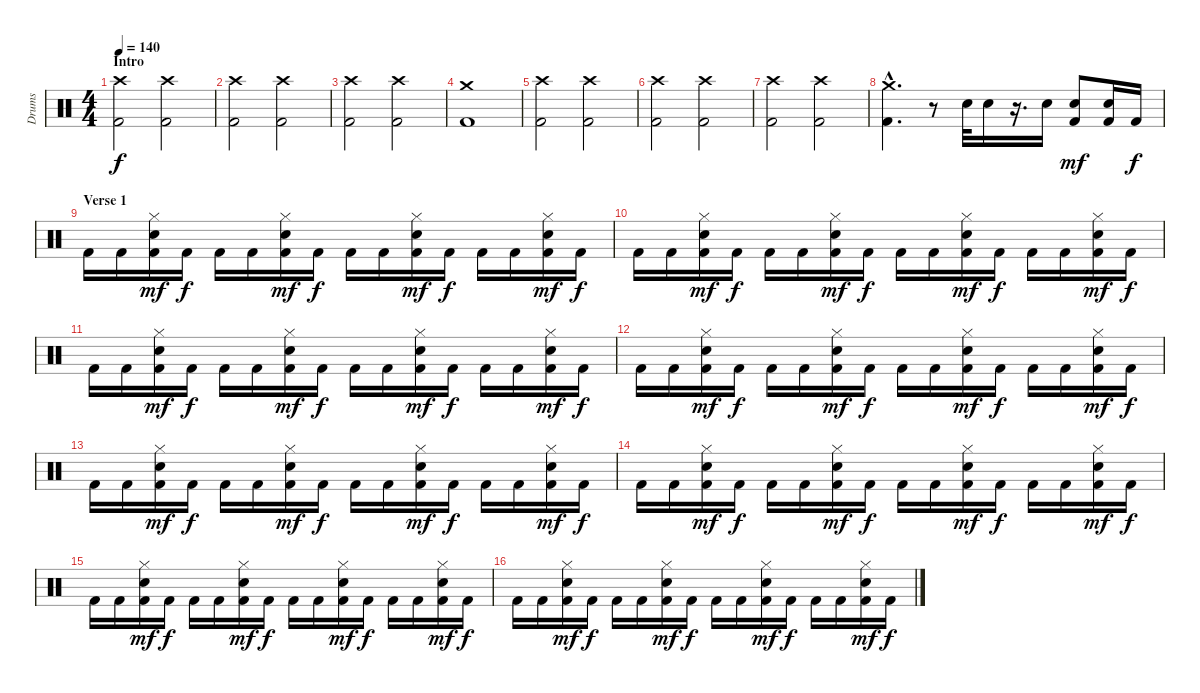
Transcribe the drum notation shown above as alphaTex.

\track ("Drums" "Drums") {instrument percussion}
\staff {score}
\articulation defaults
\ts (4 4)
\section ("" "Intro")
\tempo 140
\clef neutral
\ks c
("Kick (hit) 2" "Crash high (hit)").2{dy f} ("Kick (hit) 2" "Crash high (hit)").2 |
("Kick (hit) 2" "Crash high (hit)").2 ("Kick (hit) 2" "Crash high (hit)").2 |
("Kick (hit) 2" "Crash high (hit)").2 ("Kick (hit) 2" "Crash high (hit)").2 |
("Kick (hit) 2" "Crash medium (hit)").1 |
("Kick (hit) 2" "Crash high (hit)").2 ("Kick (hit) 2" "Crash high (hit)").2 |
("Kick (hit) 2" "Crash high (hit)").2 ("Kick (hit) 2" "Crash high (hit)").2 |
("Kick (hit) 2" "Crash high (hit)").2 ("Kick (hit) 2" "Crash high (hit)").2 |
("Kick (hit) 2"{hac} "Crash medium (hit)"{hac}).4{d} r.8 "Snare (hit) 2".32 "Snare (hit) 2".16 r.16{d} "Snare (hit) 2".16 ("Kick (hit) 2" "Snare (hit) 2").8{dy mf} ("Kick (hit) 2" "Snare (hit) 2").16 "Kick (hit) 2".16{dy f} |
\section ("" "Verse 1")
"Kick (hit) 2".16 "Kick (hit) 2".16 ("Kick (hit) 2" "Snare (hit) 2" "Hi-Hat (closed)").16{dy mf} "Kick (hit) 2".16{dy f} "Kick (hit) 2".16 "Kick (hit) 2".16 ("Kick (hit) 2" "Snare (hit) 2" "Hi-Hat (closed)").16{dy mf} "Kick (hit) 2".16{dy f} "Kick (hit) 2".16 "Kick (hit) 2".16 ("Kick (hit) 2" "Snare (hit) 2" "Hi-Hat (closed)").16{dy mf} "Kick (hit) 2".16{dy f} "Kick (hit) 2".16 "Kick (hit) 2".16 ("Kick (hit) 2" "Snare (hit) 2" "Hi-Hat (closed)").16{dy mf} "Kick (hit) 2".16{dy f} |
"Kick (hit) 2".16 "Kick (hit) 2".16 ("Kick (hit) 2" "Snare (hit) 2" "Hi-Hat (closed)").16{dy mf} "Kick (hit) 2".16{dy f} "Kick (hit) 2".16 "Kick (hit) 2".16 ("Kick (hit) 2" "Snare (hit) 2" "Hi-Hat (closed)").16{dy mf} "Kick (hit) 2".16{dy f} "Kick (hit) 2".16 "Kick (hit) 2".16 ("Kick (hit) 2" "Snare (hit) 2" "Hi-Hat (closed)").16{dy mf} "Kick (hit) 2".16{dy f} "Kick (hit) 2".16 "Kick (hit) 2".16 ("Kick (hit) 2" "Snare (hit) 2" "Hi-Hat (closed)").16{dy mf} "Kick (hit) 2".16{dy f} |
"Kick (hit) 2".16 "Kick (hit) 2".16 ("Kick (hit) 2" "Snare (hit) 2" "Hi-Hat (closed)").16{dy mf} "Kick (hit) 2".16{dy f} "Kick (hit) 2".16 "Kick (hit) 2".16 ("Kick (hit) 2" "Snare (hit) 2" "Hi-Hat (closed)").16{dy mf} "Kick (hit) 2".16{dy f} "Kick (hit) 2".16 "Kick (hit) 2".16 ("Kick (hit) 2" "Snare (hit) 2" "Hi-Hat (closed)").16{dy mf} "Kick (hit) 2".16{dy f} "Kick (hit) 2".16 "Kick (hit) 2".16 ("Kick (hit) 2" "Snare (hit) 2" "Hi-Hat (closed)").16{dy mf} "Kick (hit) 2".16{dy f} |
"Kick (hit) 2".16 "Kick (hit) 2".16 ("Kick (hit) 2" "Snare (hit) 2" "Hi-Hat (closed)").16{dy mf} "Kick (hit) 2".16{dy f} "Kick (hit) 2".16 "Kick (hit) 2".16 ("Kick (hit) 2" "Snare (hit) 2" "Hi-Hat (closed)").16{dy mf} "Kick (hit) 2".16{dy f} "Kick (hit) 2".16 "Kick (hit) 2".16 ("Kick (hit) 2" "Snare (hit) 2" "Hi-Hat (closed)").16{dy mf} "Kick (hit) 2".16{dy f} "Kick (hit) 2".16 "Kick (hit) 2".16 ("Kick (hit) 2" "Snare (hit) 2" "Hi-Hat (closed)").16{dy mf} "Kick (hit) 2".16{dy f} |
"Kick (hit) 2".16 "Kick (hit) 2".16 ("Kick (hit) 2" "Snare (hit) 2" "Hi-Hat (closed)").16{dy mf} "Kick (hit) 2".16{dy f} "Kick (hit) 2".16 "Kick (hit) 2".16 ("Kick (hit) 2" "Snare (hit) 2" "Hi-Hat (closed)").16{dy mf} "Kick (hit) 2".16{dy f} "Kick (hit) 2".16 "Kick (hit) 2".16 ("Kick (hit) 2" "Snare (hit) 2" "Hi-Hat (closed)").16{dy mf} "Kick (hit) 2".16{dy f} "Kick (hit) 2".16 "Kick (hit) 2".16 ("Kick (hit) 2" "Snare (hit) 2" "Hi-Hat (closed)").16{dy mf} "Kick (hit) 2".16{dy f} |
"Kick (hit) 2".16 "Kick (hit) 2".16 ("Kick (hit) 2" "Snare (hit) 2" "Hi-Hat (closed)").16{dy mf} "Kick (hit) 2".16{dy f} "Kick (hit) 2".16 "Kick (hit) 2".16 ("Kick (hit) 2" "Snare (hit) 2" "Hi-Hat (closed)").16{dy mf} "Kick (hit) 2".16{dy f} "Kick (hit) 2".16 "Kick (hit) 2".16 ("Kick (hit) 2" "Snare (hit) 2" "Hi-Hat (closed)").16{dy mf} "Kick (hit) 2".16{dy f} "Kick (hit) 2".16 "Kick (hit) 2".16 ("Kick (hit) 2" "Snare (hit) 2" "Hi-Hat (closed)").16{dy mf} "Kick (hit) 2".16{dy f} |
"Kick (hit) 2".16 "Kick (hit) 2".16 ("Kick (hit) 2" "Snare (hit) 2" "Hi-Hat (closed)").16{dy mf} "Kick (hit) 2".16{dy f} "Kick (hit) 2".16 "Kick (hit) 2".16 ("Kick (hit) 2" "Snare (hit) 2" "Hi-Hat (closed)").16{dy mf} "Kick (hit) 2".16{dy f} "Kick (hit) 2".16 "Kick (hit) 2".16 ("Kick (hit) 2" "Snare (hit) 2" "Hi-Hat (closed)").16{dy mf} "Kick (hit) 2".16{dy f} "Kick (hit) 2".16 "Kick (hit) 2".16 ("Kick (hit) 2" "Snare (hit) 2" "Hi-Hat (closed)").16{dy mf} "Kick (hit) 2".16{dy f} |
"Kick (hit) 2".16 "Kick (hit) 2".16 ("Kick (hit) 2" "Snare (hit) 2" "Hi-Hat (closed)").16{dy mf} "Kick (hit) 2".16{dy f} "Kick (hit) 2".16 "Kick (hit) 2".16 ("Kick (hit) 2" "Snare (hit) 2" "Hi-Hat (closed)").16{dy mf} "Kick (hit) 2".16{dy f} "Kick (hit) 2".16 "Kick (hit) 2".16 ("Kick (hit) 2" "Snare (hit) 2" "Hi-Hat (closed)").16{dy mf} "Kick (hit) 2".16{dy f} "Kick (hit) 2".16 "Kick (hit) 2".16 ("Kick (hit) 2" "Snare (hit) 2" "Hi-Hat (closed)").16{dy mf} "Kick (hit) 2".16{dy f}
